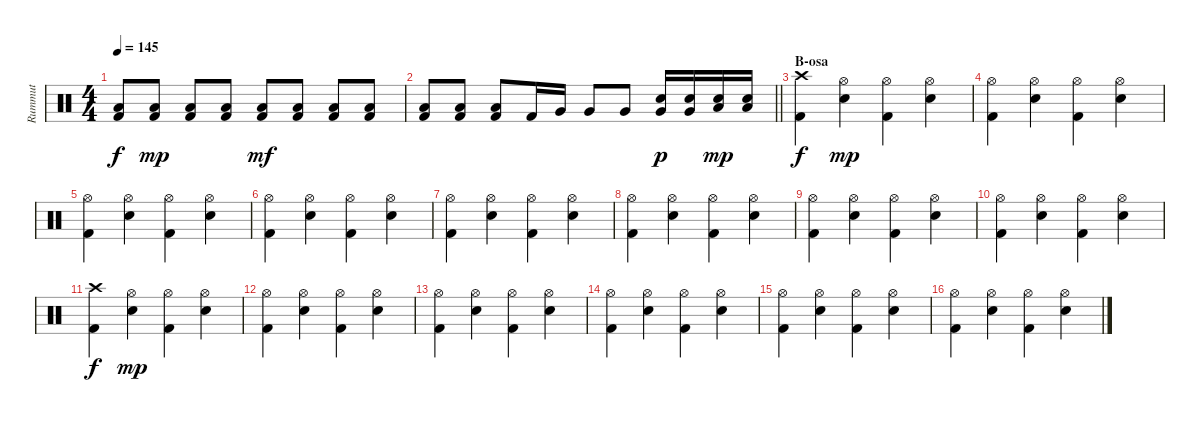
\track ("Rummut" "Rummut") {instrument percussion}
\staff {score}
\articulation defaults
\ts (4 4)
\tempo 145
\clef neutral
\ks c
("Low Floor Tom (hit)" "Kick (hit) 2").8{dy f} ("Low Floor Tom (hit)" "Kick (hit) 2").8{dy mp} ("Low Floor Tom (hit)" "Kick (hit) 2").8 ("Low Floor Tom (hit)" "Kick (hit) 2").8 ("Low Floor Tom (hit)" "Kick (hit) 2").8{dy mf} ("Low Floor Tom (hit)" "Kick (hit) 2").8 ("Low Floor Tom (hit)" "Kick (hit) 2").8 ("Low Floor Tom (hit)" "Kick (hit) 2").8 |
\barLineRight lightlight
("Low Floor Tom (hit)" "Kick (hit) 2").8 ("Low Floor Tom (hit)" "Kick (hit) 2").8 ("Low Floor Tom (hit)" "Kick (hit) 2").8 "Kick (hit) 2".16 "Very Low Tom (hit)".16 "Very Low Tom (hit)".8 "Very Low Tom (hit)".8 ("Very Low Tom (hit)" "Snare (hit) 2").16{dy p} ("Very Low Tom (hit)" "Snare (hit) 2").16 ("Low Floor Tom (hit)" "Snare (hit) 2").16{dy mp} ("Low Floor Tom (hit)" "Snare (hit) 2").16 |
\section ("" "B-osa")
("Crash high (hit)" "Kick (hit) 2").4{dy f} ("Hi-Hat (open)" "Snare (hit) 2").4{dy mp} ("Hi-Hat (open)" "Kick (hit) 2").4 ("Hi-Hat (open)" "Snare (hit) 2").4 |
("Hi-Hat (open)" "Kick (hit) 2").4 ("Hi-Hat (open)" "Snare (hit) 2").4 ("Hi-Hat (open)" "Kick (hit) 2").4 ("Hi-Hat (open)" "Snare (hit) 2").4 |
("Hi-Hat (open)" "Kick (hit) 2").4 ("Hi-Hat (open)" "Snare (hit) 2").4 ("Hi-Hat (open)" "Kick (hit) 2").4 ("Hi-Hat (open)" "Snare (hit) 2").4 |
("Hi-Hat (open)" "Kick (hit) 2").4 ("Hi-Hat (open)" "Snare (hit) 2").4 ("Hi-Hat (open)" "Kick (hit) 2").4 ("Hi-Hat (open)" "Snare (hit) 2").4 |
("Hi-Hat (open)" "Kick (hit) 2").4 ("Hi-Hat (open)" "Snare (hit) 2").4 ("Hi-Hat (open)" "Kick (hit) 2").4 ("Hi-Hat (open)" "Snare (hit) 2").4 |
("Hi-Hat (open)" "Kick (hit) 2").4 ("Hi-Hat (open)" "Snare (hit) 2").4 ("Hi-Hat (open)" "Kick (hit) 2").4 ("Hi-Hat (open)" "Snare (hit) 2").4 |
("Hi-Hat (open)" "Kick (hit) 2").4 ("Hi-Hat (open)" "Snare (hit) 2").4 ("Hi-Hat (open)" "Kick (hit) 2").4 ("Hi-Hat (open)" "Snare (hit) 2").4 |
("Hi-Hat (open)" "Kick (hit) 2").4 ("Hi-Hat (open)" "Snare (hit) 2").4 ("Hi-Hat (open)" "Kick (hit) 2").4 ("Hi-Hat (open)" "Snare (hit) 2").4 |
("Crash high (hit)" "Kick (hit) 2").4{dy f} ("Hi-Hat (open)" "Snare (hit) 2").4{dy mp} ("Hi-Hat (open)" "Kick (hit) 2").4 ("Hi-Hat (open)" "Snare (hit) 2").4 |
("Hi-Hat (open)" "Kick (hit) 2").4 ("Hi-Hat (open)" "Snare (hit) 2").4 ("Hi-Hat (open)" "Kick (hit) 2").4 ("Hi-Hat (open)" "Snare (hit) 2").4 |
("Hi-Hat (open)" "Kick (hit) 2").4 ("Hi-Hat (open)" "Snare (hit) 2").4 ("Hi-Hat (open)" "Kick (hit) 2").4 ("Hi-Hat (open)" "Snare (hit) 2").4 |
("Hi-Hat (open)" "Kick (hit) 2").4 ("Hi-Hat (open)" "Snare (hit) 2").4 ("Hi-Hat (open)" "Kick (hit) 2").4 ("Hi-Hat (open)" "Snare (hit) 2").4 |
("Hi-Hat (open)" "Kick (hit) 2").4 ("Hi-Hat (open)" "Snare (hit) 2").4 ("Hi-Hat (open)" "Kick (hit) 2").4 ("Hi-Hat (open)" "Snare (hit) 2").4 |
("Hi-Hat (open)" "Kick (hit) 2").4 ("Hi-Hat (open)" "Snare (hit) 2").4 ("Hi-Hat (open)" "Kick (hit) 2").4 ("Hi-Hat (open)" "Snare (hit) 2").4
